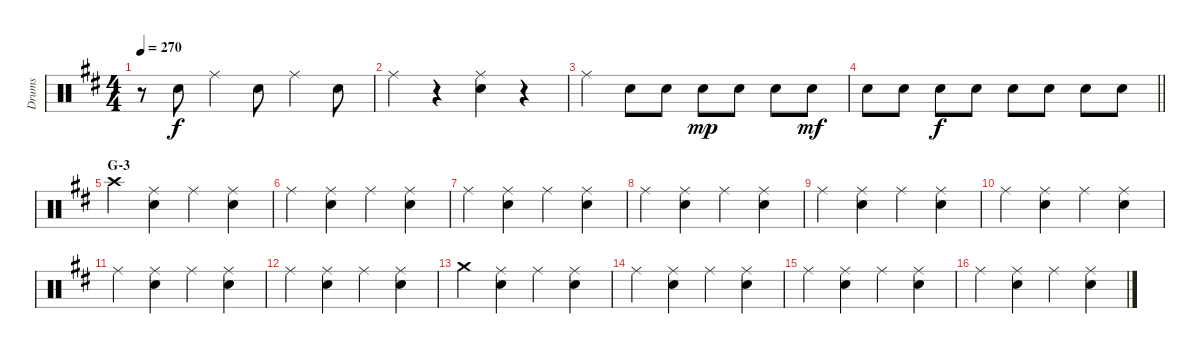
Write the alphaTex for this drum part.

\track ("Drums" "Drums") {instrument percussion}
\staff {score}
\articulation defaults
\ts (4 4)
\tempo 270
\clef neutral
\ks d
r.8{dy f} "Snare (hit) 2".8 "Ride (middle)".4 "Snare (hit) 2".8 "Ride (middle)".4 "Snare (hit) 2".8 |
"Ride (middle)".4 r.4 ("Ride (middle)" "Snare (hit) 2").4 r.4 |
"Ride (middle)".4 "Snare (hit) 2".8 "Snare (hit) 2".8 "Snare (hit) 2".8{dy mp} "Snare (hit) 2".8 "Snare (hit) 2".8 "Snare (hit) 2".8{dy mf} |
\barLineRight lightlight "Snare (hit) 2".8 "Snare (hit) 2".8 "Snare (hit) 2".8{dy f} "Snare (hit) 2".8 "Snare (hit) 2".8 "Snare (hit) 2".8 "Snare (hit) 2".8 "Snare (hit) 2".8
|
\section ("" "G-3")
"Crash high (hit)".4 ("Ride (middle)" "Snare (hit) 2").4 "Ride (middle)".4 ("Ride (middle)" "Snare (hit) 2").4 |
"Ride (middle)".4 ("Ride (middle)" "Snare (hit) 2").4 "Ride (middle)".4 ("Ride (middle)" "Snare (hit) 2").4 |
"Ride (middle)".4 ("Ride (middle)" "Snare (hit) 2").4 "Ride (middle)".4 ("Ride (middle)" "Snare (hit) 2").4 |
"Ride (middle)".4 ("Ride (middle)" "Snare (hit) 2").4 "Ride (middle)".4 ("Ride (middle)" "Snare (hit) 2").4 |
"Ride (middle)".4 ("Ride (middle)" "Snare (hit) 2").4 "Ride (middle)".4 ("Ride (middle)" "Snare (hit) 2").4 |
"Ride (middle)".4 ("Ride (middle)" "Snare (hit) 2").4 "Ride (middle)".4 ("Ride (middle)" "Snare (hit) 2").4 |
"Ride (middle)".4 ("Ride (middle)" "Snare (hit) 2").4 "Ride (middle)".4 ("Ride (middle)" "Snare (hit) 2").4 |
"Ride (middle)".4 ("Ride (middle)" "Snare (hit) 2").4 "Ride (middle)".4 ("Ride (middle)" "Snare (hit) 2").4 |
"Crash medium (hit)".4 ("Ride (middle)" "Snare (hit) 2").4 "Ride (middle)".4 ("Ride (middle)" "Snare (hit) 2").4 |
"Ride (middle)".4 ("Ride (middle)" "Snare (hit) 2").4 "Ride (middle)".4 ("Ride (middle)" "Snare (hit) 2").4 |
"Ride (middle)".4 ("Ride (middle)" "Snare (hit) 2").4 "Ride (middle)".4 ("Ride (middle)" "Snare (hit) 2").4 |
"Ride (middle)".4 ("Ride (middle)" "Snare (hit) 2").4 "Ride (middle)".4 ("Ride (middle)" "Snare (hit) 2").4
